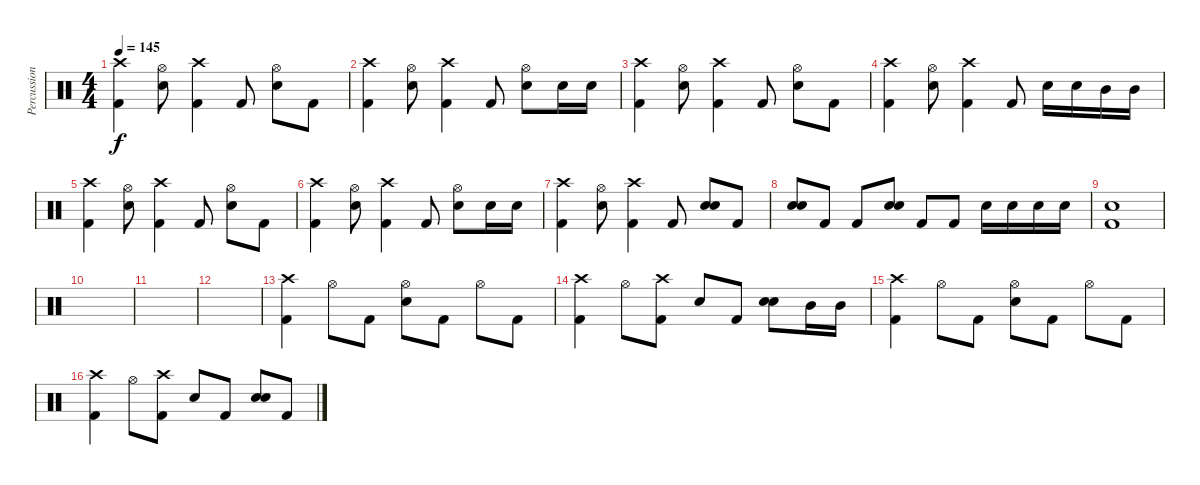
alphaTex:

\track ("Percussion" "Percussion") {instrument percussion}
\staff {score}
\articulation defaults
\ts (4 4)
\tempo 145
\clef neutral
\ks c
("Crash high (hit)" "Kick (hit) 2").4{dy f} ("Hi-Hat (open)" "Snare (hit) 2").8 ("Crash high (hit)" "Kick (hit) 2").4 "Kick (hit) 2".8 ("Hi-Hat (open)" "Snare (hit) 2").8 "Kick (hit) 2".8 |
("Crash high (hit)" "Kick (hit) 2").4 ("Hi-Hat (open)" "Snare (hit) 2").8 ("Crash high (hit)" "Kick (hit) 2").4 "Kick (hit) 2".8 ("Hi-Hat (open)" "Snare (hit) 2").8 "Snare (hit) 2".16 "Snare (hit) 2".16 |
("Crash high (hit)" "Kick (hit) 2").4 ("Hi-Hat (open)" "Snare (hit) 2").8 ("Crash high (hit)" "Kick (hit) 2").4 "Kick (hit) 2".8 ("Hi-Hat (open)" "Snare (hit) 2").8 "Kick (hit) 2".8 |
("Crash high (hit)" "Kick (hit) 2").4 ("Hi-Hat (open)" "Snare (hit) 2").8 ("Crash high (hit)" "Kick (hit) 2").4 "Kick (hit) 2".8 "Snare (hit) 2".16 "Snare (hit) 2".16 "Mid Tom (hit)".16 "Mid Tom (hit)".16 |
("Crash high (hit)" "Kick (hit) 2").4 ("Hi-Hat (open)" "Snare (hit) 2").8 ("Crash high (hit)" "Kick (hit) 2").4 "Kick (hit) 2".8 ("Hi-Hat (open)" "Snare (hit) 2").8 "Kick (hit) 2".8 |
("Crash high (hit)" "Kick (hit) 2").4 ("Hi-Hat (open)" "Snare (hit) 2").8 ("Crash high (hit)" "Kick (hit) 2").4 "Kick (hit) 2".8 ("Hi-Hat (open)" "Snare (hit) 2").8 "Snare (hit) 2".16 "Snare (hit) 2".16 |
("Crash high (hit)" "Kick (hit) 2").4 ("Hi-Hat (open)" "Snare (hit) 2").8 ("Crash high (hit)" "Kick (hit) 2").4 "Kick (hit) 2".8 ("Snare (hit) 2" "Snare (hit) 2").8{bd 240} "Kick (hit) 2".8 |
("Snare (hit) 2" "Snare (hit) 2").8{bd 240} "Kick (hit) 2".8 "Kick (hit) 2".8 ("Snare (hit) 2" "Snare (hit) 2").8{bd 240} "Kick (hit) 2".8 "Kick (hit) 2".8 "Snare (hit) 2".16 "Snare (hit) 2".16 "Snare (hit) 2".16 "Snare (hit) 2".16 |
("Snare (hit) 2" "Kick (hit) 2").1 |
|
|
|
("Crash high (hit)" "Kick (hit) 2").4 "Hi-Hat (open)".8 "Kick (hit) 2".8 ("Hi-Hat (open)" "Snare (hit) 2").8 "Kick (hit) 2".8 "Hi-Hat (open)".8 "Kick (hit) 2".8 |
("Crash high (hit)" "Kick (hit) 2").4 "Hi-Hat (open)".8 ("Crash high (hit)" "Kick (hit) 2").8 "Snare (hit) 2".8 "Kick (hit) 2".8 ("Snare (hit) 2" "Snare (hit) 2").8{bd 240} "Mid Tom (hit)".16 "Mid Tom (hit)".16 |
("Crash high (hit)" "Kick (hit) 2").4 "Hi-Hat (open)".8 "Kick (hit) 2".8 ("Hi-Hat (open)" "Snare (hit) 2").8 "Kick (hit) 2".8 "Hi-Hat (open)".8 "Kick (hit) 2".8 |
("Crash high (hit)" "Kick (hit) 2").4 "Hi-Hat (open)".8 ("Crash high (hit)" "Kick (hit) 2").8 "Snare (hit) 2".8 "Kick (hit) 2".8 ("Snare (hit) 2" "Snare (hit) 2").8{bd 240} "Kick (hit) 2".8
